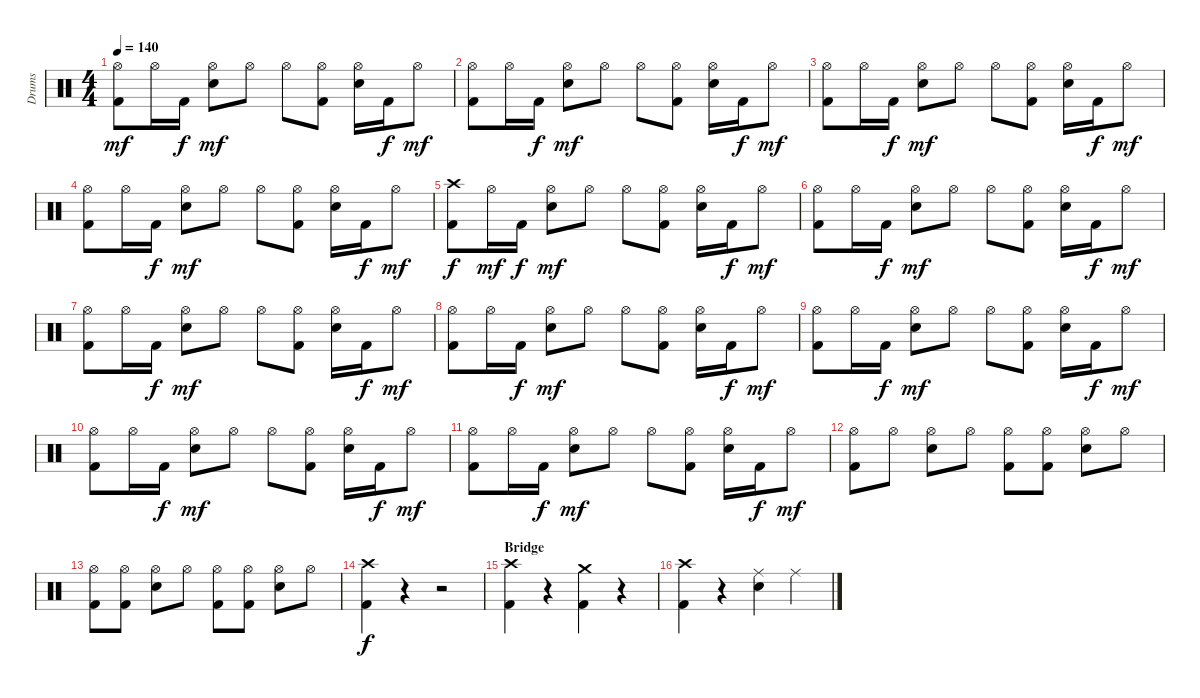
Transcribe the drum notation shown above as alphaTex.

\track ("Drums" "Drums") {instrument percussion}
\staff {score}
\articulation defaults
\ts (4 4)
\tempo 140
\clef neutral
\ks c
("Hi-Hat (open)" "Kick (hit) 2").8{dy mf} "Hi-Hat (open)".16 "Kick (hit) 2".16{dy f} ("Hi-Hat (open)" "Electric Snare (hit)").8{dy mf} "Hi-Hat (open)".8 "Hi-Hat (open)".8 ("Hi-Hat (open)" "Kick (hit) 2").8 ("Hi-Hat (open)" "Electric Snare (hit)").16 "Kick (hit) 2".16{dy f} "Hi-Hat (open)".8{dy mf} |
("Hi-Hat (open)" "Kick (hit) 2").8 "Hi-Hat (open)".16 "Kick (hit) 2".16{dy f} ("Hi-Hat (open)" "Electric Snare (hit)").8{dy mf} "Hi-Hat (open)".8 "Hi-Hat (open)".8 ("Hi-Hat (open)" "Kick (hit) 2").8 ("Hi-Hat (open)" "Electric Snare (hit)").16 "Kick (hit) 2".16{dy f} "Hi-Hat (open)".8{dy mf} |
("Hi-Hat (open)" "Kick (hit) 2").8 "Hi-Hat (open)".16 "Kick (hit) 2".16{dy f} ("Hi-Hat (open)" "Electric Snare (hit)").8{dy mf} "Hi-Hat (open)".8 "Hi-Hat (open)".8 ("Hi-Hat (open)" "Kick (hit) 2").8 ("Hi-Hat (open)" "Electric Snare (hit)").16 "Kick (hit) 2".16{dy f} "Hi-Hat (open)".8{dy mf} |
("Hi-Hat (open)" "Kick (hit) 2").8 "Hi-Hat (open)".16 "Kick (hit) 2".16{dy f} ("Hi-Hat (open)" "Electric Snare (hit)").8{dy mf} "Hi-Hat (open)".8 "Hi-Hat (open)".8 ("Hi-Hat (open)" "Kick (hit) 2").8 ("Hi-Hat (open)" "Electric Snare (hit)").16 "Kick (hit) 2".16{dy f} "Hi-Hat (open)".8{dy mf} |
("Crash high (hit)" "Kick (hit) 2").8{dy f} "Hi-Hat (open)".16{dy mf} "Kick (hit) 2".16{dy f} ("Hi-Hat (open)" "Electric Snare (hit)").8{dy mf} "Hi-Hat (open)".8 "Hi-Hat (open)".8 ("Hi-Hat (open)" "Kick (hit) 2").8 ("Hi-Hat (open)" "Electric Snare (hit)").16 "Kick (hit) 2".16{dy f} "Hi-Hat (open)".8{dy mf} |
("Hi-Hat (open)" "Kick (hit) 2").8 "Hi-Hat (open)".16 "Kick (hit) 2".16{dy f} ("Hi-Hat (open)" "Electric Snare (hit)").8{dy mf} "Hi-Hat (open)".8 "Hi-Hat (open)".8 ("Hi-Hat (open)" "Kick (hit) 2").8 ("Hi-Hat (open)" "Electric Snare (hit)").16 "Kick (hit) 2".16{dy f} "Hi-Hat (open)".8{dy mf} |
("Hi-Hat (open)" "Kick (hit) 2").8 "Hi-Hat (open)".16 "Kick (hit) 2".16{dy f} ("Hi-Hat (open)" "Electric Snare (hit)").8{dy mf} "Hi-Hat (open)".8 "Hi-Hat (open)".8 ("Hi-Hat (open)" "Kick (hit) 2").8 ("Hi-Hat (open)" "Electric Snare (hit)").16 "Kick (hit) 2".16{dy f} "Hi-Hat (open)".8{dy mf} |
("Hi-Hat (open)" "Kick (hit) 2").8 "Hi-Hat (open)".16 "Kick (hit) 2".16{dy f} ("Hi-Hat (open)" "Electric Snare (hit)").8{dy mf} "Hi-Hat (open)".8 "Hi-Hat (open)".8 ("Hi-Hat (open)" "Kick (hit) 2").8 ("Hi-Hat (open)" "Electric Snare (hit)").16 "Kick (hit) 2".16{dy f} "Hi-Hat (open)".8{dy mf} |
("Hi-Hat (open)" "Kick (hit) 2").8 "Hi-Hat (open)".16 "Kick (hit) 2".16{dy f} ("Hi-Hat (open)" "Electric Snare (hit)").8{dy mf} "Hi-Hat (open)".8 "Hi-Hat (open)".8 ("Hi-Hat (open)" "Kick (hit) 2").8 ("Hi-Hat (open)" "Electric Snare (hit)").16 "Kick (hit) 2".16{dy f} "Hi-Hat (open)".8{dy mf} |
("Hi-Hat (open)" "Kick (hit) 2").8 "Hi-Hat (open)".16 "Kick (hit) 2".16{dy f} ("Hi-Hat (open)" "Electric Snare (hit)").8{dy mf} "Hi-Hat (open)".8 "Hi-Hat (open)".8 ("Hi-Hat (open)" "Kick (hit) 2").8 ("Hi-Hat (open)" "Electric Snare (hit)").16 "Kick (hit) 2".16{dy f} "Hi-Hat (open)".8{dy mf} |
("Hi-Hat (open)" "Kick (hit) 2").8 "Hi-Hat (open)".16 "Kick (hit) 2".16{dy f} ("Hi-Hat (open)" "Electric Snare (hit)").8{dy mf} "Hi-Hat (open)".8 "Hi-Hat (open)".8 ("Hi-Hat (open)" "Kick (hit) 2").8 ("Hi-Hat (open)" "Electric Snare (hit)").16 "Kick (hit) 2".16{dy f} "Hi-Hat (open)".8{dy mf} |
("Hi-Hat (open)" "Kick (hit) 2").8 "Hi-Hat (open)".8 ("Hi-Hat (open)" "Electric Snare (hit)").8 "Hi-Hat (open)".8 ("Hi-Hat (open)" "Kick (hit) 2").8 ("Hi-Hat (open)" "Kick (hit) 2").8 ("Hi-Hat (open)" "Electric Snare (hit)").8 "Hi-Hat (open)".8 |
("Hi-Hat (open)" "Kick (hit) 2").8 ("Hi-Hat (open)" "Kick (hit) 2").8 ("Hi-Hat (open)" "Electric Snare (hit)").8 "Hi-Hat (open)".8 ("Hi-Hat (open)" "Kick (hit) 2").8 ("Hi-Hat (open)" "Kick (hit) 2").8 ("Hi-Hat (open)" "Electric Snare (hit)").8 "Hi-Hat (open)".8 |
("Crash high (hit)" "Kick (hit) 2").4{dy f} r.4 r.2 |
\section ("" "Bridge")
("Crash high (hit)" "Kick (hit) 2").4 r.4 ("Crash medium (hit)" "Kick (hit) 2").4 r.4 |
("Crash high (hit)" "Kick (hit) 2").4 r.4 ("Ride (middle)" "Electric Snare (hit)").4 "Ride (middle)".4
